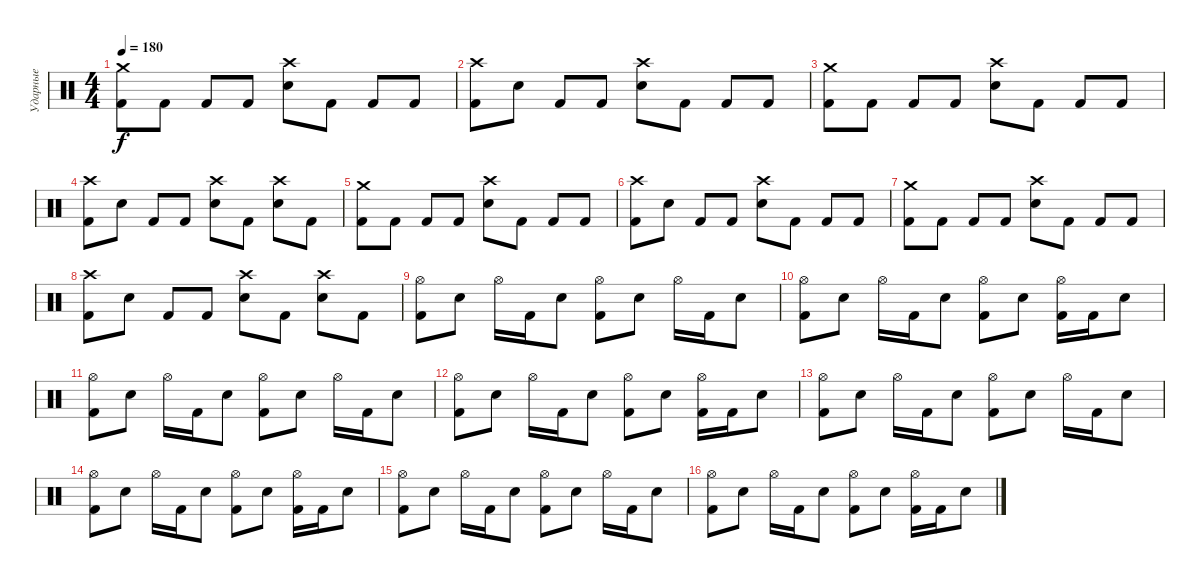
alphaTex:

\track ("Ударные" "Ударные") {instrument percussion}
\staff {score}
\articulation defaults
\ts (4 4)
\tempo 180
\clef neutral
\ks c
("Crash medium (hit)" "Kick (hit) 2").8{dy f} "Kick (hit) 2".8 "Kick (hit) 2".8 "Kick (hit) 2".8 ("Crash high (hit)" "Electric Snare (hit)").8 "Kick (hit) 2".8 "Kick (hit) 2".8 "Kick (hit) 2".8 |
("Crash high (hit)" "Kick (hit) 2").8 "Electric Snare (hit)".8 "Kick (hit) 2".8 "Kick (hit) 2".8 ("Crash high (hit)" "Electric Snare (hit)").8 "Kick (hit) 2".8 "Kick (hit) 2".8 "Kick (hit) 2".8 |
("Crash medium (hit)" "Kick (hit) 2").8 "Kick (hit) 2".8 "Kick (hit) 2".8 "Kick (hit) 2".8 ("Crash high (hit)" "Electric Snare (hit)").8 "Kick (hit) 2".8 "Kick (hit) 2".8 "Kick (hit) 2".8 |
("Crash high (hit)" "Kick (hit) 2").8 "Electric Snare (hit)".8 "Kick (hit) 2".8 "Kick (hit) 2".8 ("Crash high (hit)" "Electric Snare (hit)").8 "Kick (hit) 2".8 ("Crash high (hit)" "Electric Snare (hit)").8 "Kick (hit) 2".8 |
("Crash medium (hit)" "Kick (hit) 2").8 "Kick (hit) 2".8 "Kick (hit) 2".8 "Kick (hit) 2".8 ("Crash high (hit)" "Electric Snare (hit)").8 "Kick (hit) 2".8 "Kick (hit) 2".8 "Kick (hit) 2".8 |
("Crash high (hit)" "Kick (hit) 2").8 "Electric Snare (hit)".8 "Kick (hit) 2".8 "Kick (hit) 2".8 ("Crash high (hit)" "Electric Snare (hit)").8 "Kick (hit) 2".8 "Kick (hit) 2".8 "Kick (hit) 2".8 |
("Crash medium (hit)" "Kick (hit) 2").8 "Kick (hit) 2".8 "Kick (hit) 2".8 "Kick (hit) 2".8 ("Crash high (hit)" "Electric Snare (hit)").8 "Kick (hit) 2".8 "Kick (hit) 2".8 "Kick (hit) 2".8 |
("Crash high (hit)" "Kick (hit) 2").8 "Electric Snare (hit)".8 "Kick (hit) 2".8 "Kick (hit) 2".8 ("Crash high (hit)" "Electric Snare (hit)").8 "Kick (hit) 2".8 ("Crash high (hit)" "Electric Snare (hit)").8 "Kick (hit) 2".8 |
("Hi-Hat (open)" "Kick (hit) 2").8 "Electric Snare (hit)".8 "Hi-Hat (open)".16 "Kick (hit) 2".16 "Electric Snare (hit)".8 ("Hi-Hat (open)" "Kick (hit) 2").8 "Electric Snare (hit)".8 "Hi-Hat (open)".16 "Kick (hit) 2".16 "Electric Snare (hit)".8 |
("Hi-Hat (open)" "Kick (hit) 2").8 "Electric Snare (hit)".8 "Hi-Hat (open)".16 "Kick (hit) 2".16 "Electric Snare (hit)".8 ("Hi-Hat (open)" "Kick (hit) 2").8 "Electric Snare (hit)".8 ("Hi-Hat (open)" "Kick (hit) 2").16 "Kick (hit) 2".16 "Electric Snare (hit)".8 |
("Hi-Hat (open)" "Kick (hit) 2").8 "Electric Snare (hit)".8 "Hi-Hat (open)".16 "Kick (hit) 2".16 "Electric Snare (hit)".8 ("Hi-Hat (open)" "Kick (hit) 2").8 "Electric Snare (hit)".8 "Hi-Hat (open)".16 "Kick (hit) 2".16 "Electric Snare (hit)".8 |
("Hi-Hat (open)" "Kick (hit) 2").8 "Electric Snare (hit)".8 "Hi-Hat (open)".16 "Kick (hit) 2".16 "Electric Snare (hit)".8 ("Hi-Hat (open)" "Kick (hit) 2").8 "Electric Snare (hit)".8 ("Hi-Hat (open)" "Kick (hit) 2").16 "Kick (hit) 2".16 "Electric Snare (hit)".8 |
("Hi-Hat (open)" "Kick (hit) 2").8 "Electric Snare (hit)".8 "Hi-Hat (open)".16 "Kick (hit) 2".16 "Electric Snare (hit)".8 ("Hi-Hat (open)" "Kick (hit) 2").8 "Electric Snare (hit)".8 "Hi-Hat (open)".16 "Kick (hit) 2".16 "Electric Snare (hit)".8 |
("Hi-Hat (open)" "Kick (hit) 2").8 "Electric Snare (hit)".8 "Hi-Hat (open)".16 "Kick (hit) 2".16 "Electric Snare (hit)".8 ("Hi-Hat (open)" "Kick (hit) 2").8 "Electric Snare (hit)".8 ("Hi-Hat (open)" "Kick (hit) 2").16 "Kick (hit) 2".16 "Electric Snare (hit)".8 |
("Hi-Hat (open)" "Kick (hit) 2").8 "Electric Snare (hit)".8 "Hi-Hat (open)".16 "Kick (hit) 2".16 "Electric Snare (hit)".8 ("Hi-Hat (open)" "Kick (hit) 2").8 "Electric Snare (hit)".8 "Hi-Hat (open)".16 "Kick (hit) 2".16 "Electric Snare (hit)".8 |
("Hi-Hat (open)" "Kick (hit) 2").8 "Electric Snare (hit)".8 "Hi-Hat (open)".16 "Kick (hit) 2".16 "Electric Snare (hit)".8 ("Hi-Hat (open)" "Kick (hit) 2").8 "Electric Snare (hit)".8 ("Hi-Hat (open)" "Kick (hit) 2").16 "Kick (hit) 2".16 "Electric Snare (hit)".8
